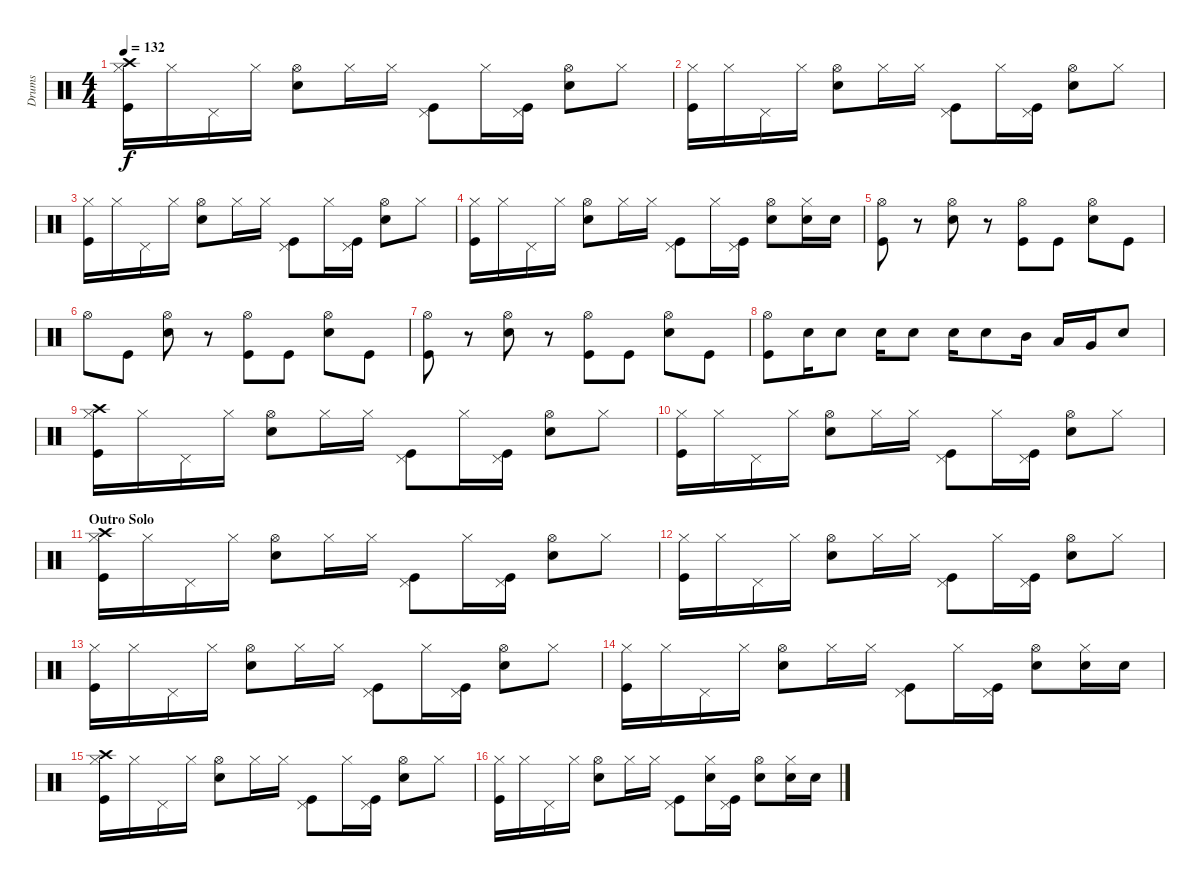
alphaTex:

\track ("Drums" "Drums") {instrument percussion}
\staff {score}
\articulation defaults
\ts (4 4)
\tempo 132
\clef neutral
\ks c
("Hi-Hat (closed)" "Crash high (hit)" "Kick (hit)").16{dy f} "Hi-Hat (closed)".16 "Pedal Hi-Hat (hit)".16 "Hi-Hat (closed)".16 ("Hi-Hat (open)" "Snare (hit) 2").8 "Hi-Hat (closed)".16 "Hi-Hat (closed)".16 ("Pedal Hi-Hat (hit)" "Kick (hit)").8 "Hi-Hat (closed)".16 ("Pedal Hi-Hat (hit)" "Kick (hit)").16 ("Hi-Hat (open)" "Snare (hit) 2").8 "Hi-Hat (closed)".8 |
("Hi-Hat (closed)" "Kick (hit)").16 "Hi-Hat (closed)".16 "Pedal Hi-Hat (hit)".16 "Hi-Hat (closed)".16 ("Hi-Hat (open)" "Snare (hit) 2").8 "Hi-Hat (closed)".16 "Hi-Hat (closed)".16 ("Pedal Hi-Hat (hit)" "Kick (hit)").8 "Hi-Hat (closed)".16 ("Pedal Hi-Hat (hit)" "Kick (hit)").16 ("Hi-Hat (open)" "Snare (hit) 2").8 "Hi-Hat (closed)".8 |
("Hi-Hat (closed)" "Kick (hit)").16 "Hi-Hat (closed)".16 "Pedal Hi-Hat (hit)".16 "Hi-Hat (closed)".16 ("Hi-Hat (open)" "Snare (hit) 2").8 "Hi-Hat (closed)".16 "Hi-Hat (closed)".16 ("Pedal Hi-Hat (hit)" "Kick (hit)").8 "Hi-Hat (closed)".16 ("Pedal Hi-Hat (hit)" "Kick (hit)").16 ("Hi-Hat (open)" "Snare (hit) 2").8 "Hi-Hat (closed)".8 |
("Hi-Hat (closed)" "Kick (hit)").16 "Hi-Hat (closed)".16 "Pedal Hi-Hat (hit)".16 "Hi-Hat (closed)".16 ("Hi-Hat (open)" "Snare (hit) 2").8 "Hi-Hat (closed)".16 "Hi-Hat (closed)".16 ("Pedal Hi-Hat (hit)" "Kick (hit)").8 "Hi-Hat (closed)".16 ("Pedal Hi-Hat (hit)" "Kick (hit)").16 ("Hi-Hat (open)" "Snare (hit) 2").8 ("Hi-Hat (closed)" "Snare (hit) 2").16 "Snare (hit) 2".16 |
("Hi-Hat (open)" "Kick (hit)").8 r.8 ("Hi-Hat (open)" "Snare (hit) 2").8 r.8 ("Hi-Hat (open)" "Kick (hit)").8 "Kick (hit)".8 ("Hi-Hat (open)" "Snare (hit) 2").8 "Kick (hit)".8 |
"Hi-Hat (open)".8 "Kick (hit)".8 ("Hi-Hat (open)" "Snare (hit) 2").8 r.8 ("Hi-Hat (open)" "Kick (hit)").8 "Kick (hit)".8 ("Hi-Hat (open)" "Snare (hit) 2").8 "Kick (hit)".8 |
("Hi-Hat (open)" "Kick (hit)").8 r.8 ("Hi-Hat (open)" "Snare (hit) 2").8 r.8 ("Hi-Hat (open)" "Kick (hit)").8 "Kick (hit)".8 ("Hi-Hat (open)" "Snare (hit) 2").8 "Kick (hit)".8 |
("Hi-Hat (open)" "Kick (hit)").8 "Snare (hit) 2".16 "Snare (hit) 2".8 "Snare (hit) 2".16 "Snare (hit) 2".8 "Snare (hit) 2".16 "Snare (hit) 2".8 "Mid Tom (hit)".16 "Low Tom (hit)".16 "Very Low Tom (hit)".16 "Snare (hit) 2".8 |
("Hi-Hat (closed)" "Crash high (hit)" "Kick (hit)").16 "Hi-Hat (closed)".16 "Pedal Hi-Hat (hit)".16 "Hi-Hat (closed)".16 ("Hi-Hat (open)" "Snare (hit) 2").8 "Hi-Hat (closed)".16 "Hi-Hat (closed)".16 ("Pedal Hi-Hat (hit)" "Kick (hit)").8 "Hi-Hat (closed)".16 ("Pedal Hi-Hat (hit)" "Kick (hit)").16 ("Hi-Hat (open)" "Snare (hit) 2").8 "Hi-Hat (closed)".8 |
("Hi-Hat (closed)" "Kick (hit)").16 "Hi-Hat (closed)".16 "Pedal Hi-Hat (hit)".16 "Hi-Hat (closed)".16 ("Hi-Hat (open)" "Snare (hit) 2").8 "Hi-Hat (closed)".16 "Hi-Hat (closed)".16 ("Pedal Hi-Hat (hit)" "Kick (hit)").8 "Hi-Hat (closed)".16 ("Pedal Hi-Hat (hit)" "Kick (hit)").16 ("Hi-Hat (open)" "Snare (hit) 2").8 "Hi-Hat (closed)".8 |
\section ("" "Outro Solo")
("Hi-Hat (closed)" "Crash high (hit)" "Kick (hit)").16 "Hi-Hat (closed)".16 "Pedal Hi-Hat (hit)".16 "Hi-Hat (closed)".16 ("Hi-Hat (open)" "Snare (hit) 2").8 "Hi-Hat (closed)".16 "Hi-Hat (closed)".16 ("Pedal Hi-Hat (hit)" "Kick (hit)").8 "Hi-Hat (closed)".16 ("Pedal Hi-Hat (hit)" "Kick (hit)").16 ("Hi-Hat (open)" "Snare (hit) 2").8 "Hi-Hat (closed)".8 |
("Hi-Hat (closed)" "Kick (hit)").16 "Hi-Hat (closed)".16 "Pedal Hi-Hat (hit)".16 "Hi-Hat (closed)".16 ("Hi-Hat (open)" "Snare (hit) 2").8 "Hi-Hat (closed)".16 "Hi-Hat (closed)".16 ("Pedal Hi-Hat (hit)" "Kick (hit)").8 "Hi-Hat (closed)".16 ("Pedal Hi-Hat (hit)" "Kick (hit)").16 ("Hi-Hat (open)" "Snare (hit) 2").8 "Hi-Hat (closed)".8 |
("Hi-Hat (closed)" "Kick (hit)").16 "Hi-Hat (closed)".16 "Pedal Hi-Hat (hit)".16 "Hi-Hat (closed)".16 ("Hi-Hat (open)" "Snare (hit) 2").8 "Hi-Hat (closed)".16 "Hi-Hat (closed)".16 ("Pedal Hi-Hat (hit)" "Kick (hit)").8 "Hi-Hat (closed)".16 ("Pedal Hi-Hat (hit)" "Kick (hit)").16 ("Hi-Hat (open)" "Snare (hit) 2").8 "Hi-Hat (closed)".8 |
("Hi-Hat (closed)" "Kick (hit)").16 "Hi-Hat (closed)".16 "Pedal Hi-Hat (hit)".16 "Hi-Hat (closed)".16 ("Hi-Hat (open)" "Snare (hit) 2").8 "Hi-Hat (closed)".16 "Hi-Hat (closed)".16 ("Pedal Hi-Hat (hit)" "Kick (hit)").8 "Hi-Hat (closed)".16 ("Pedal Hi-Hat (hit)" "Kick (hit)").16 ("Hi-Hat (open)" "Snare (hit) 2").8 ("Hi-Hat (closed)" "Snare (hit) 2").16 "Snare (hit) 2".16 |
("Hi-Hat (closed)" "Crash high (hit)" "Kick (hit)").16 "Hi-Hat (closed)".16 "Pedal Hi-Hat (hit)".16 "Hi-Hat (closed)".16 ("Hi-Hat (open)" "Snare (hit) 2").8 "Hi-Hat (closed)".16 "Hi-Hat (closed)".16 ("Pedal Hi-Hat (hit)" "Kick (hit)").8 "Hi-Hat (closed)".16 ("Pedal Hi-Hat (hit)" "Kick (hit)").16 ("Hi-Hat (open)" "Snare (hit) 2").8 "Hi-Hat (closed)".8 |
("Hi-Hat (closed)" "Kick (hit)").16 "Hi-Hat (closed)".16 "Pedal Hi-Hat (hit)".16 "Hi-Hat (closed)".16 ("Hi-Hat (open)" "Snare (hit) 2").8 "Hi-Hat (closed)".16 "Hi-Hat (closed)".16 ("Pedal Hi-Hat (hit)" "Kick (hit)").8 ("Hi-Hat (closed)" "Snare (hit) 2").16 ("Pedal Hi-Hat (hit)" "Kick (hit)").16 ("Hi-Hat (open)" "Snare (hit) 2").8 ("Hi-Hat (closed)" "Snare (hit) 2").16 "Snare (hit) 2".16
